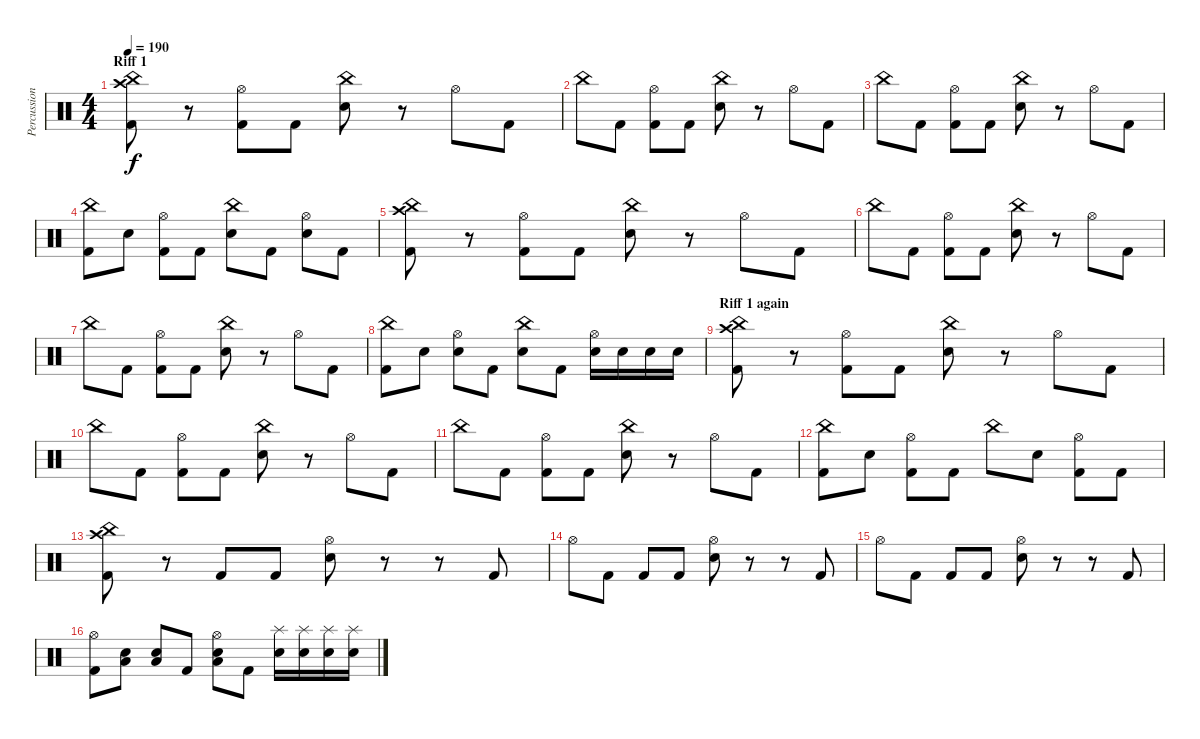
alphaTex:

\track ("Percussion" "Percussion") {instrument percussion}
\staff {score}
\articulation defaults
\ts (4 4)
\section ("" "Riff 1")
\tempo 190
\clef neutral
\ks c
("China (hit)" "Crash high (hit)" "Kick (hit) 2").8{dy f} r.8 ("Hi-Hat (open)" "Kick (hit) 2").8 "Kick (hit) 2".8 ("China (hit)" "Electric Snare (hit)").8 r.8 "Hi-Hat (open)".8 "Kick (hit) 2".8 |
"China (hit)".8 "Kick (hit) 2".8 ("Hi-Hat (open)" "Kick (hit) 2").8 "Kick (hit) 2".8 ("China (hit)" "Electric Snare (hit)").8 r.8 "Hi-Hat (open)".8 "Kick (hit) 2".8 |
"China (hit)".8 "Kick (hit) 2".8 ("Hi-Hat (open)" "Kick (hit) 2").8 "Kick (hit) 2".8 ("China (hit)" "Electric Snare (hit)").8 r.8 "Hi-Hat (open)".8 "Kick (hit) 2".8 |
("China (hit)" "Kick (hit) 2").8 "Electric Snare (hit)".8 ("Hi-Hat (open)" "Kick (hit) 2").8 "Kick (hit) 2".8 ("China (hit)" "Electric Snare (hit)").8 "Kick (hit) 2".8 ("Hi-Hat (open)" "Electric Snare (hit)").8 "Kick (hit) 2".8 |
("China (hit)" "Crash high (hit)" "Kick (hit) 2").8 r.8 ("Hi-Hat (open)" "Kick (hit) 2").8 "Kick (hit) 2".8 ("China (hit)" "Electric Snare (hit)").8 r.8 "Hi-Hat (open)".8 "Kick (hit) 2".8 |
"China (hit)".8 "Kick (hit) 2".8 ("Hi-Hat (open)" "Kick (hit) 2").8 "Kick (hit) 2".8 ("China (hit)" "Electric Snare (hit)").8 r.8 "Hi-Hat (open)".8 "Kick (hit) 2".8 |
"China (hit)".8 "Kick (hit) 2".8 ("Hi-Hat (open)" "Kick (hit) 2").8 "Kick (hit) 2".8 ("China (hit)" "Electric Snare (hit)").8 r.8 "Hi-Hat (open)".8 "Kick (hit) 2".8 |
("China (hit)" "Kick (hit) 2").8 "Electric Snare (hit)".8 ("Hi-Hat (open)" "Electric Snare (hit)").8 "Kick (hit) 2".8 ("China (hit)" "Electric Snare (hit)").8 "Kick (hit) 2".8 ("Hi-Hat (open)" "Electric Snare (hit)").16 "Electric Snare (hit)".16 "Electric Snare (hit)".16 "Electric Snare (hit)".16 |
\section ("" "Riff 1 again")
("China (hit)" "Crash high (hit)" "Kick (hit) 2").8 r.8 ("Hi-Hat (open)" "Kick (hit) 2").8 "Kick (hit) 2".8 ("China (hit)" "Electric Snare (hit)").8 r.8 "Hi-Hat (open)".8 "Kick (hit) 2".8 |
"China (hit)".8 "Kick (hit) 2".8 ("Hi-Hat (open)" "Kick (hit) 2").8 "Kick (hit) 2".8 ("China (hit)" "Electric Snare (hit)").8 r.8 "Hi-Hat (open)".8 "Kick (hit) 2".8 |
"China (hit)".8 "Kick (hit) 2".8 ("Hi-Hat (open)" "Kick (hit) 2").8 "Kick (hit) 2".8 ("China (hit)" "Electric Snare (hit)").8 r.8 "Hi-Hat (open)".8 "Kick (hit) 2".8 |
("China (hit)" "Kick (hit) 2").8 "Electric Snare (hit)".8 ("Hi-Hat (open)" "Kick (hit) 2").8 "Kick (hit) 2".8 "China (hit)".8 "Electric Snare (hit)".8 ("Hi-Hat (open)" "Kick (hit) 2").8 "Kick (hit) 2".8 |
("China (hit)" "Crash high (hit)" "Kick (hit) 2").8 r.8 "Kick (hit) 2".8 "Kick (hit) 2".8 ("Hi-Hat (open)" "Electric Snare (hit)").8 r.8 r.8 "Kick (hit) 2".8 |
"Hi-Hat (open)".8 "Kick (hit) 2".8 "Kick (hit) 2".8 "Kick (hit) 2".8 ("Hi-Hat (open)" "Electric Snare (hit)").8 r.8 r.8 "Kick (hit) 2".8 |
"Hi-Hat (open)".8 "Kick (hit) 2".8 "Kick (hit) 2".8 "Kick (hit) 2".8 ("Hi-Hat (open)" "Electric Snare (hit)").8 r.8 r.8 "Kick (hit) 2".8 |
("Hi-Hat (open)" "Kick (hit) 2").8 ("Electric Snare (hit)" "Low Floor Tom (hit)").8 ("Electric Snare (hit)" "Low Floor Tom (hit)").8 "Kick (hit) 2".8 ("Hi-Hat (open)" "Electric Snare (hit)" "Low Floor Tom (hit)").8 "Kick (hit) 2".8 ("Splash (hit)" "Electric Snare (hit)").16 ("Splash (hit)" "Electric Snare (hit)").16 ("Splash (hit)" "Electric Snare (hit)").16 ("Splash (hit)" "Electric Snare (hit)").16
